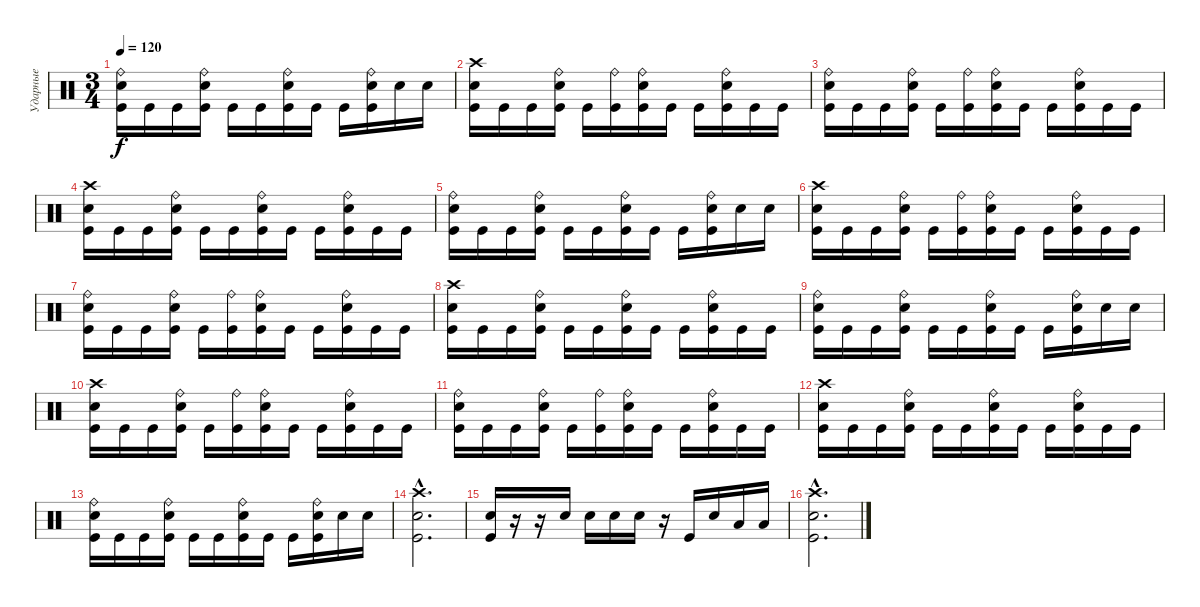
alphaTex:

\track ("Ударные" "Ударные") {instrument percussion}
\staff {score}
\articulation defaults
\ts (3 4)
\tempo 120
\clef neutral
\ks c
("Ride (bell)" "Electric Snare (hit)" "Kick (hit)").16{dy f} "Kick (hit)".16 "Kick (hit)".16 ("Ride (bell)" "Electric Snare (hit)" "Kick (hit)").16 "Kick (hit)".16 "Kick (hit)".16 ("Ride (bell)" "Electric Snare (hit)" "Kick (hit)").16 "Kick (hit)".16 "Kick (hit)".16 ("Ride (bell)" "Electric Snare (hit)" "Kick (hit)").16 "Electric Snare (hit)".16 "Electric Snare (hit)".16 |
("Crash high (hit)" "Electric Snare (hit)" "Kick (hit)").16 "Kick (hit)".16 "Kick (hit)".16 ("Ride (bell)" "Electric Snare (hit)" "Kick (hit)").16 "Kick (hit)".16 ("Ride (bell)" "Kick (hit)").16 ("Ride (bell)" "Electric Snare (hit)" "Kick (hit)").16 "Kick (hit)".16 "Kick (hit)".16 ("Ride (bell)" "Electric Snare (hit)" "Kick (hit)").16 "Kick (hit)".16 "Kick (hit)".16 |
("Ride (bell)" "Electric Snare (hit)" "Kick (hit)").16 "Kick (hit)".16 "Kick (hit)".16 ("Ride (bell)" "Electric Snare (hit)" "Kick (hit)").16 "Kick (hit)".16 ("Ride (bell)" "Kick (hit)").16 ("Ride (bell)" "Electric Snare (hit)" "Kick (hit)").16 "Kick (hit)".16 "Kick (hit)".16 ("Ride (bell)" "Electric Snare (hit)" "Kick (hit)").16 "Kick (hit)".16 "Kick (hit)".16 |
("Crash high (hit)" "Electric Snare (hit)" "Kick (hit)").16 "Kick (hit)".16 "Kick (hit)".16 ("Ride (bell)" "Electric Snare (hit)" "Kick (hit)").16 "Kick (hit)".16 "Kick (hit)".16 ("Ride (bell)" "Electric Snare (hit)" "Kick (hit)").16 "Kick (hit)".16 "Kick (hit)".16 ("Ride (bell)" "Electric Snare (hit)" "Kick (hit)").16 "Kick (hit)".16 "Kick (hit)".16 |
("Ride (bell)" "Electric Snare (hit)" "Kick (hit)").16 "Kick (hit)".16 "Kick (hit)".16 ("Ride (bell)" "Electric Snare (hit)" "Kick (hit)").16 "Kick (hit)".16 "Kick (hit)".16 ("Ride (bell)" "Electric Snare (hit)" "Kick (hit)").16 "Kick (hit)".16 "Kick (hit)".16 ("Ride (bell)" "Electric Snare (hit)" "Kick (hit)").16 "Electric Snare (hit)".16 "Electric Snare (hit)".16 |
("Crash high (hit)" "Electric Snare (hit)" "Kick (hit)").16 "Kick (hit)".16 "Kick (hit)".16 ("Ride (bell)" "Electric Snare (hit)" "Kick (hit)").16 "Kick (hit)".16 ("Ride (bell)" "Kick (hit)").16 ("Ride (bell)" "Electric Snare (hit)" "Kick (hit)").16 "Kick (hit)".16 "Kick (hit)".16 ("Ride (bell)" "Electric Snare (hit)" "Kick (hit)").16 "Kick (hit)".16 "Kick (hit)".16 |
("Ride (bell)" "Electric Snare (hit)" "Kick (hit)").16 "Kick (hit)".16 "Kick (hit)".16 ("Ride (bell)" "Electric Snare (hit)" "Kick (hit)").16 "Kick (hit)".16 ("Ride (bell)" "Kick (hit)").16 ("Ride (bell)" "Electric Snare (hit)" "Kick (hit)").16 "Kick (hit)".16 "Kick (hit)".16 ("Ride (bell)" "Electric Snare (hit)" "Kick (hit)").16 "Kick (hit)".16 "Kick (hit)".16 |
("Crash high (hit)" "Electric Snare (hit)" "Kick (hit)").16 "Kick (hit)".16 "Kick (hit)".16 ("Ride (bell)" "Electric Snare (hit)" "Kick (hit)").16 "Kick (hit)".16 "Kick (hit)".16 ("Ride (bell)" "Electric Snare (hit)" "Kick (hit)").16 "Kick (hit)".16 "Kick (hit)".16 ("Ride (bell)" "Electric Snare (hit)" "Kick (hit)").16 "Kick (hit)".16 "Kick (hit)".16 |
("Ride (bell)" "Electric Snare (hit)" "Kick (hit)").16 "Kick (hit)".16 "Kick (hit)".16 ("Ride (bell)" "Electric Snare (hit)" "Kick (hit)").16 "Kick (hit)".16 "Kick (hit)".16 ("Ride (bell)" "Electric Snare (hit)" "Kick (hit)").16 "Kick (hit)".16 "Kick (hit)".16 ("Ride (bell)" "Electric Snare (hit)" "Kick (hit)").16 "Electric Snare (hit)".16 "Electric Snare (hit)".16 |
("Crash high (hit)" "Electric Snare (hit)" "Kick (hit)").16 "Kick (hit)".16 "Kick (hit)".16 ("Ride (bell)" "Electric Snare (hit)" "Kick (hit)").16 "Kick (hit)".16 ("Ride (bell)" "Kick (hit)").16 ("Ride (bell)" "Electric Snare (hit)" "Kick (hit)").16 "Kick (hit)".16 "Kick (hit)".16 ("Ride (bell)" "Electric Snare (hit)" "Kick (hit)").16 "Kick (hit)".16 "Kick (hit)".16 |
("Ride (bell)" "Electric Snare (hit)" "Kick (hit)").16 "Kick (hit)".16 "Kick (hit)".16 ("Ride (bell)" "Electric Snare (hit)" "Kick (hit)").16 "Kick (hit)".16 ("Ride (bell)" "Kick (hit)").16 ("Ride (bell)" "Electric Snare (hit)" "Kick (hit)").16 "Kick (hit)".16 "Kick (hit)".16 ("Ride (bell)" "Electric Snare (hit)" "Kick (hit)").16 "Kick (hit)".16 "Kick (hit)".16 |
("Crash high (hit)" "Electric Snare (hit)" "Kick (hit)").16 "Kick (hit)".16 "Kick (hit)".16 ("Ride (bell)" "Electric Snare (hit)" "Kick (hit)").16 "Kick (hit)".16 "Kick (hit)".16 ("Ride (bell)" "Electric Snare (hit)" "Kick (hit)").16 "Kick (hit)".16 "Kick (hit)".16 ("Ride (bell)" "Electric Snare (hit)" "Kick (hit)").16 "Kick (hit)".16 "Kick (hit)".16 |
("Ride (bell)" "Electric Snare (hit)" "Kick (hit)").16 "Kick (hit)".16 "Kick (hit)".16 ("Ride (bell)" "Electric Snare (hit)" "Kick (hit)").16 "Kick (hit)".16 "Kick (hit)".16 ("Ride (bell)" "Electric Snare (hit)" "Kick (hit)").16 "Kick (hit)".16 "Kick (hit)".16 ("Ride (bell)" "Electric Snare (hit)" "Kick (hit)").16 "Electric Snare (hit)".16 "Electric Snare (hit)".16 |
("Crash high (hit)"{hac} "Electric Snare (hit)"{hac} "Kick (hit)"{hac}).2{d} |
("Electric Snare (hit)" "Kick (hit)").16 r.16 r.16 "Electric Snare (hit)".16 "Electric Snare (hit)".16 "Electric Snare (hit)".16 "Electric Snare (hit)".16 r.16 "Kick (hit)".16 "Electric Snare (hit)".16 "Low Tom (hit)".16 "Low Tom (hit)".16 |
("Crash high (hit)"{hac} "Electric Snare (hit)"{hac} "Kick (hit)"{hac}).2{d}
